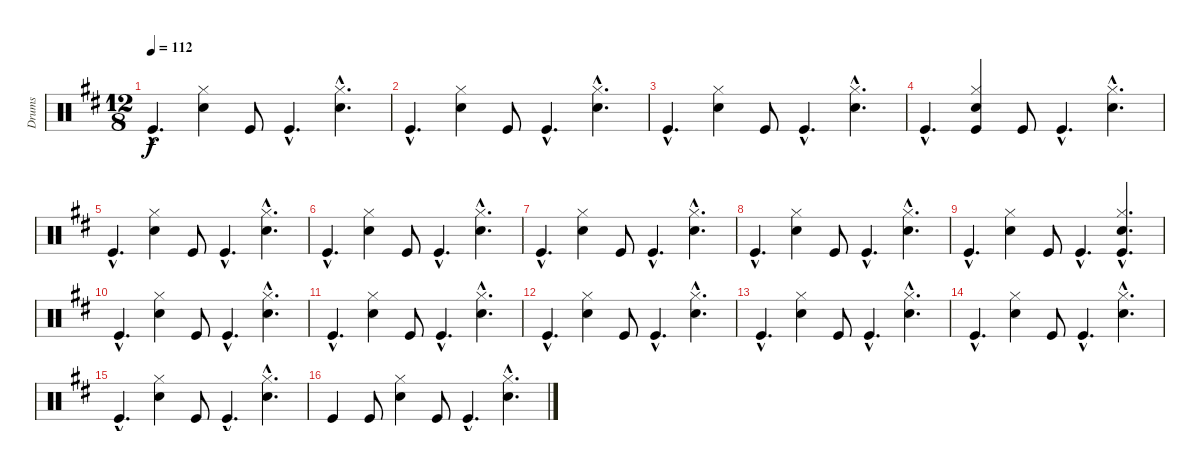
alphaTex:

\track ("Drums" "Drums") {instrument percussion}
\staff {score}
\articulation defaults
\ts (12 8)
\tempo 112
\clef neutral
\ks d "Kick (hit)"{hac}.4{d dy f}
("Hi-Hat (closed)" "Electric Snare (hit)").4 "Kick (hit)".8 "Kick (hit)"{hac}.4{d} ("Hi-Hat (closed)"{hac} "Electric Snare (hit)"{hac}).4{d} |
"Kick (hit)"{hac}.4{d} ("Hi-Hat (closed)" "Electric Snare (hit)").4 "Kick (hit)".8 "Kick (hit)"{hac}.4{d} ("Hi-Hat (closed)"{hac} "Electric Snare (hit)"{hac}).4{d} |
"Kick (hit)"{hac}.4{d} ("Hi-Hat (closed)" "Electric Snare (hit)").4 "Kick (hit)".8 "Kick (hit)"{hac}.4{d} ("Hi-Hat (closed)"{hac} "Electric Snare (hit)"{hac}).4{d} |
"Kick (hit)"{hac}.4{d} ("Hi-Hat (closed)" "Electric Snare (hit)" "Kick (hit)").4 "Kick (hit)".8 "Kick (hit)"{hac}.4{d} ("Hi-Hat (closed)"{hac} "Electric Snare (hit)"{hac}).4{d} |
"Kick (hit)"{hac}.4{d} ("Hi-Hat (closed)" "Electric Snare (hit)").4 "Kick (hit)".8 "Kick (hit)"{hac}.4{d} ("Hi-Hat (closed)"{hac} "Electric Snare (hit)"{hac}).4{d} |
"Kick (hit)"{hac}.4{d} ("Hi-Hat (closed)" "Electric Snare (hit)").4 "Kick (hit)".8 "Kick (hit)"{hac}.4{d} ("Hi-Hat (closed)"{hac} "Electric Snare (hit)"{hac}).4{d} |
"Kick (hit)"{hac}.4{d} ("Hi-Hat (closed)" "Electric Snare (hit)").4 "Kick (hit)".8 "Kick (hit)"{hac}.4{d} ("Hi-Hat (closed)"{hac} "Electric Snare (hit)"{hac}).4{d} |
"Kick (hit)"{hac}.4{d} ("Hi-Hat (closed)" "Electric Snare (hit)").4 "Kick (hit)".8 "Kick (hit)"{hac}.4{d} ("Hi-Hat (closed)"{hac} "Electric Snare (hit)"{hac}).4{d} |
"Kick (hit)"{hac}.4{d} ("Hi-Hat (closed)" "Electric Snare (hit)").4 "Kick (hit)".8 "Kick (hit)"{hac}.4{d} ("Hi-Hat (closed)"{hac} "Electric Snare (hit)"{hac} "Kick (hit)"{hac}).4{d} |
"Kick (hit)"{hac}.4{d} ("Hi-Hat (closed)" "Electric Snare (hit)").4 "Kick (hit)".8 "Kick (hit)"{hac}.4{d} ("Hi-Hat (closed)"{hac} "Electric Snare (hit)"{hac}).4{d} |
"Kick (hit)"{hac}.4{d} ("Hi-Hat (closed)" "Electric Snare (hit)").4 "Kick (hit)".8 "Kick (hit)"{hac}.4{d} ("Hi-Hat (closed)"{hac} "Electric Snare (hit)"{hac}).4{d} |
"Kick (hit)"{hac}.4{d} ("Hi-Hat (closed)" "Electric Snare (hit)").4 "Kick (hit)".8 "Kick (hit)"{hac}.4{d} ("Hi-Hat (closed)"{hac} "Electric Snare (hit)"{hac}).4{d} |
"Kick (hit)"{hac}.4{d} ("Hi-Hat (closed)" "Electric Snare (hit)").4 "Kick (hit)".8 "Kick (hit)"{hac}.4{d} ("Hi-Hat (closed)"{hac} "Electric Snare (hit)"{hac}).4{d} |
"Kick (hit)"{hac}.4{d} ("Hi-Hat (closed)" "Electric Snare (hit)").4 "Kick (hit)".8 "Kick (hit)"{hac}.4{d} ("Hi-Hat (closed)"{hac} "Electric Snare (hit)"{hac}).4{d} |
"Kick (hit)"{hac}.4{d} ("Hi-Hat (closed)" "Electric Snare (hit)").4 "Kick (hit)".8 "Kick (hit)"{hac}.4{d} ("Hi-Hat (closed)"{hac} "Electric Snare (hit)"{hac}).4{d} |
"Kick (hit)".4 "Kick (hit)".8 ("Hi-Hat (closed)" "Electric Snare (hit)").4 "Kick (hit)".8 "Kick (hit)"{hac}.4{d} ("Hi-Hat (closed)"{hac} "Electric Snare (hit)"{hac}).4{d}
